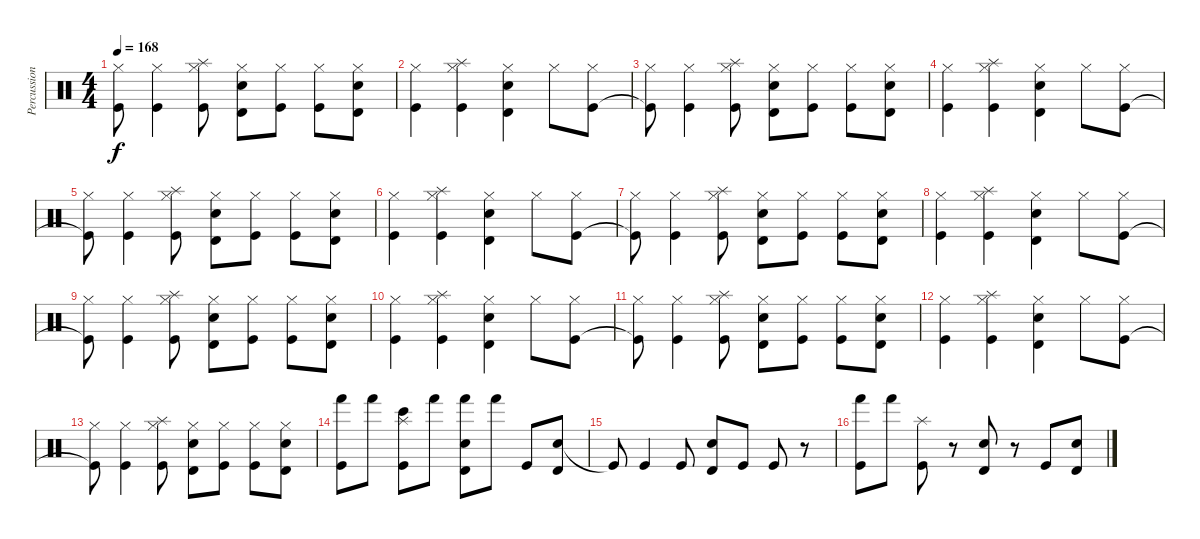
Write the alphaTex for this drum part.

\track ("Percussion" "Percussion") {instrument percussion}
\staff {score}
\articulation defaults
\ts (4 4)
\tempo 168
\clef neutral
\ks c
("Hi-Hat (closed)" "Kick (hit)"{t}).8{dy f} ("Hi-Hat (closed)" "Kick (hit)").4 ("Hi-Hat (closed)" "Splash (hit)" "Kick (hit)").8 ("Hi-Hat (closed)" "Timbale high (hit)" "Electric Snare (hit)").8 ("Hi-Hat (closed)" "Kick (hit)").8 ("Hi-Hat (closed)" "Kick (hit)").8 ("Hi-Hat (closed)" "Timbale high (hit)" "Electric Snare (hit)").8 |
("Hi-Hat (closed)" "Kick (hit)").4 ("Hi-Hat (closed)" "Splash (hit)" "Kick (hit)").4 ("Hi-Hat (closed)" "Timbale high (hit)" "Electric Snare (hit)").4 "Hi-Hat (closed)".8 ("Hi-Hat (closed)" "Kick (hit)").8 |
("Hi-Hat (closed)" "Kick (hit)"{t}).8 ("Hi-Hat (closed)" "Kick (hit)").4 ("Hi-Hat (closed)" "Splash (hit)" "Kick (hit)").8 ("Hi-Hat (closed)" "Timbale high (hit)" "Electric Snare (hit)").8 ("Hi-Hat (closed)" "Kick (hit)").8 ("Hi-Hat (closed)" "Kick (hit)").8 ("Hi-Hat (closed)" "Timbale high (hit)" "Electric Snare (hit)").8 |
("Hi-Hat (closed)" "Kick (hit)").4 ("Hi-Hat (closed)" "Splash (hit)" "Kick (hit)").4 ("Hi-Hat (closed)" "Timbale high (hit)" "Electric Snare (hit)").4 "Hi-Hat (closed)".8 ("Hi-Hat (closed)" "Kick (hit)").8 |
("Hi-Hat (closed)" "Kick (hit)"{t}).8 ("Hi-Hat (closed)" "Kick (hit)").4 ("Hi-Hat (closed)" "Splash (hit)" "Kick (hit)").8 ("Hi-Hat (closed)" "Timbale high (hit)" "Electric Snare (hit)").8 ("Hi-Hat (closed)" "Kick (hit)").8 ("Hi-Hat (closed)" "Kick (hit)").8 ("Hi-Hat (closed)" "Timbale high (hit)" "Electric Snare (hit)").8 |
("Hi-Hat (closed)" "Kick (hit)").4 ("Hi-Hat (closed)" "Splash (hit)" "Kick (hit)").4 ("Hi-Hat (closed)" "Timbale high (hit)" "Electric Snare (hit)").4 "Hi-Hat (closed)".8 ("Hi-Hat (closed)" "Kick (hit)").8 |
("Hi-Hat (closed)" "Kick (hit)"{t}).8 ("Hi-Hat (closed)" "Kick (hit)").4 ("Hi-Hat (closed)" "Splash (hit)" "Kick (hit)").8 ("Hi-Hat (closed)" "Timbale high (hit)" "Electric Snare (hit)").8 ("Hi-Hat (closed)" "Kick (hit)").8 ("Hi-Hat (closed)" "Kick (hit)").8 ("Hi-Hat (closed)" "Timbale high (hit)" "Electric Snare (hit)").8 |
("Hi-Hat (closed)" "Kick (hit)").4 ("Hi-Hat (closed)" "Splash (hit)" "Kick (hit)").4 ("Hi-Hat (closed)" "Timbale high (hit)" "Electric Snare (hit)").4 "Hi-Hat (closed)".8 ("Hi-Hat (closed)" "Kick (hit)").8 |
("Hi-Hat (closed)" "Kick (hit)"{t}).8 ("Hi-Hat (closed)" "Kick (hit)").4 ("Hi-Hat (closed)" "Splash (hit)" "Kick (hit)").8 ("Hi-Hat (closed)" "Timbale high (hit)" "Electric Snare (hit)").8 ("Hi-Hat (closed)" "Kick (hit)").8 ("Hi-Hat (closed)" "Kick (hit)").8 ("Hi-Hat (closed)" "Timbale high (hit)" "Electric Snare (hit)").8 |
("Hi-Hat (closed)" "Kick (hit)").4 ("Hi-Hat (closed)" "Splash (hit)" "Kick (hit)").4 ("Hi-Hat (closed)" "Timbale high (hit)" "Electric Snare (hit)").4 "Hi-Hat (closed)".8 ("Hi-Hat (closed)" "Kick (hit)").8 |
("Hi-Hat (closed)" "Kick (hit)"{t}).8 ("Hi-Hat (closed)" "Kick (hit)").4 ("Hi-Hat (closed)" "Splash (hit)" "Kick (hit)").8 ("Hi-Hat (closed)" "Timbale high (hit)" "Electric Snare (hit)").8 ("Hi-Hat (closed)" "Kick (hit)").8 ("Hi-Hat (closed)" "Kick (hit)").8 ("Hi-Hat (closed)" "Timbale high (hit)" "Electric Snare (hit)").8 |
("Hi-Hat (closed)" "Kick (hit)").4 ("Hi-Hat (closed)" "Splash (hit)" "Kick (hit)").4 ("Hi-Hat (closed)" "Timbale high (hit)" "Electric Snare (hit)").4 "Hi-Hat (closed)".8 ("Hi-Hat (closed)" "Kick (hit)").8 |
("Hi-Hat (closed)" "Kick (hit)"{t}).8 ("Hi-Hat (closed)" "Kick (hit)").4 ("Hi-Hat (closed)" "Splash (hit)" "Kick (hit)").8 ("Hi-Hat (closed)" "Timbale high (hit)" "Electric Snare (hit)").8 ("Hi-Hat (closed)" "Kick (hit)").8 ("Hi-Hat (closed)" "Kick (hit)").8 ("Hi-Hat (closed)" "Timbale high (hit)" "Electric Snare (hit)").8 |
("Hand (hit)" "Kick (hit)").8 "Hand (hit)".8 ("Bongo High (hit)" "Splash (hit)" "Kick (hit)").8 "Hand (hit)".8 ("Hand (hit)" "Timbale high (hit)" "Electric Snare (hit)").8 "Hand (hit)".8 "Kick (hit)".8 ("Electric Snare (hit)" "Timbale high (hit)").8 |
"Kick (hit)"{t}.8 "Kick (hit)".4 "Kick (hit)".8 ("Timbale high (hit)" "Electric Snare (hit)").8 "Kick (hit)".8 "Kick (hit)".8 r.8 |
("Hand (hit)" "Kick (hit)").8 "Hand (hit)".8 ("Splash (hit)" "Kick (hit)").8 r.8 ("Timbale high (hit)" "Electric Snare (hit)").8 r.8 "Kick (hit)".8 ("Electric Snare (hit)" "Timbale high (hit)").8
